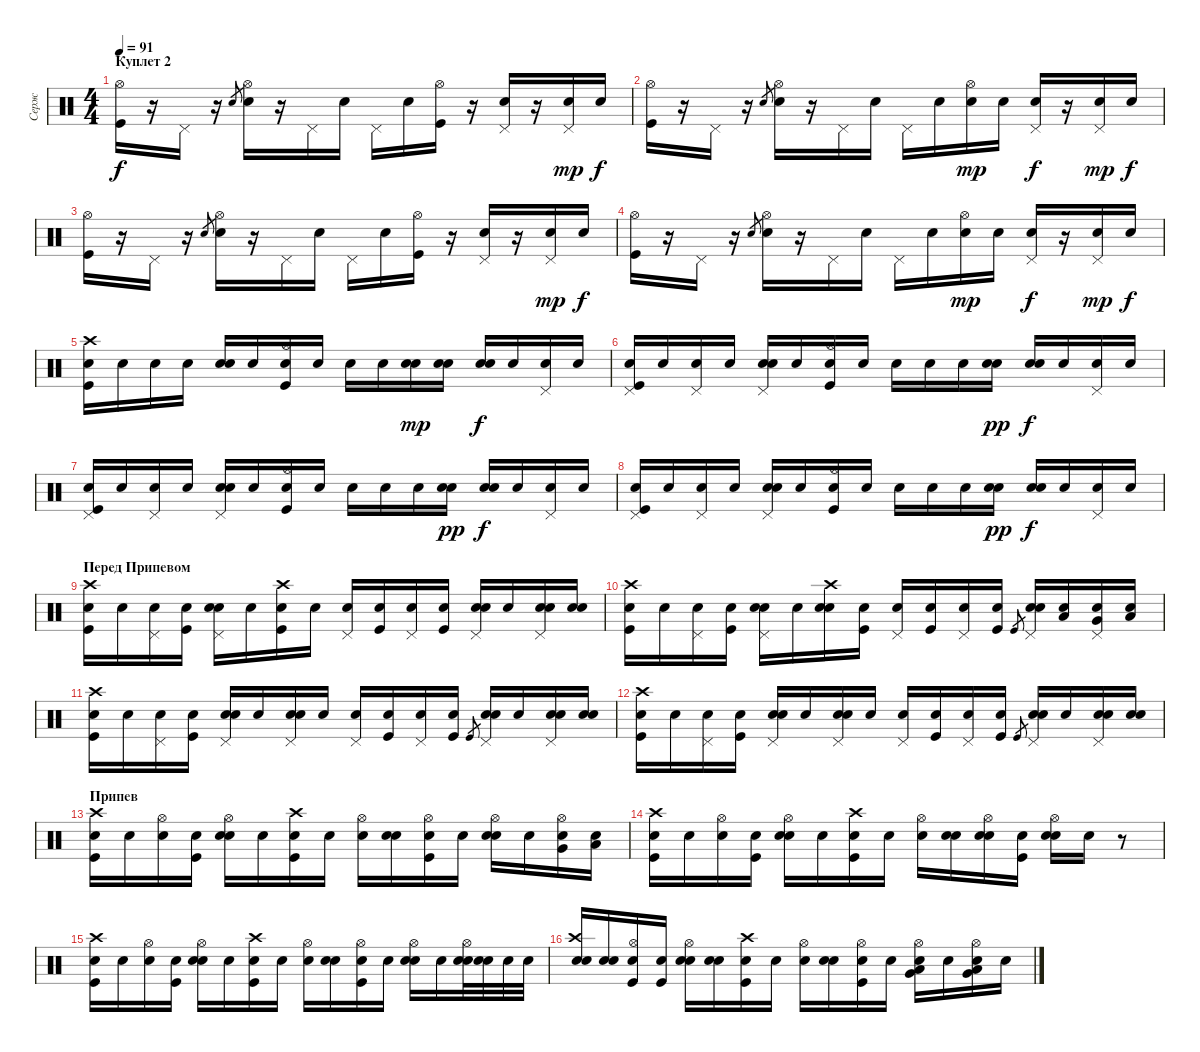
\track ("Серж" "Серж") {instrument percussion}
\staff {score}
\articulation defaults
\ts (4 4)
\section ("" "Куплет 2")
\tempo 91
\clef neutral
\ks c
("Kick (hit)" "Hi-Hat (open)").16{dy f} r.16 "Pedal Hi-Hat (hit)".16 r.16 "Snare (hit) 2".8{gr} ("Snare (hit) 2" "Hi-Hat (open)").16 r.16 "Pedal Hi-Hat (hit)".16 "Snare (hit) 2".16 "Pedal Hi-Hat (hit)".16 "Snare (hit) 2".16 ("Kick (hit)" "Hi-Hat (open)").16 r.16 ("Snare (hit) 2" "Pedal Hi-Hat (hit)").16 r.16 ("Snare (hit) 2" "Pedal Hi-Hat (hit)").16{dy mp} "Snare (hit) 2".16{dy f} |
("Kick (hit)" "Hi-Hat (open)").16 r.16 "Pedal Hi-Hat (hit)".16 r.16 "Snare (hit) 2".8{gr} ("Snare (hit) 2" "Hi-Hat (open)").16 r.16 "Pedal Hi-Hat (hit)".16 "Snare (hit) 2".16 "Pedal Hi-Hat (hit)".16 "Snare (hit) 2".16 ("Snare (hit) 2" "Hi-Hat (open)").16{dy mp} "Snare (hit) 2".16 ("Snare (hit) 2" "Pedal Hi-Hat (hit)").16{dy f} r.16 ("Snare (hit) 2" "Pedal Hi-Hat (hit)").16{dy mp} "Snare (hit) 2".16{dy f} |
("Kick (hit)" "Hi-Hat (open)").16 r.16 "Pedal Hi-Hat (hit)".16 r.16 "Snare (hit) 2".8{gr} ("Snare (hit) 2" "Hi-Hat (open)").16 r.16 "Pedal Hi-Hat (hit)".16 "Snare (hit) 2".16 "Pedal Hi-Hat (hit)".16 "Snare (hit) 2".16 ("Kick (hit)" "Hi-Hat (open)").16 r.16 ("Snare (hit) 2" "Pedal Hi-Hat (hit)").16 r.16 ("Snare (hit) 2" "Pedal Hi-Hat (hit)").16{dy mp} "Snare (hit) 2".16{dy f} |
("Kick (hit)" "Hi-Hat (open)").16 r.16 "Pedal Hi-Hat (hit)".16 r.16 "Snare (hit) 2".8{gr} ("Snare (hit) 2" "Hi-Hat (open)").16 r.16 "Pedal Hi-Hat (hit)".16 "Snare (hit) 2".16 "Pedal Hi-Hat (hit)".16 "Snare (hit) 2".16 ("Snare (hit) 2" "Hi-Hat (open)").16{dy mp} "Snare (hit) 2".16 ("Snare (hit) 2" "Pedal Hi-Hat (hit)").16{dy f} r.16 ("Snare (hit) 2" "Pedal Hi-Hat (hit)").16{dy mp} "Snare (hit) 2".16{dy f} |
("Kick (hit)" "Crash high (hit)" "Snare (hit)"{x}).16 "Snare (hit)"{x}.16 "Snare (hit)"{x}.16 "Snare (hit)"{x}.16 ("Snare (hit) 2" "Snare (hit)"{x}).16 "Snare (hit)"{x}.16 ("Kick (hit)" "Hi-Hat (open)" "Snare (hit)"{x}).16 "Snare (hit)"{x}.16 "Snare (hit)"{x}.16 "Snare (hit)"{x}.16 ("Snare (hit) 2" "Snare (hit)"{x}).16{dy mp} ("Snare (hit) 2" "Snare (hit)"{x}).16 ("Snare (hit) 2" "Snare (hit)"{x}).16{dy f} "Snare (hit)"{x}.16 ("Pedal Hi-Hat (hit)" "Snare (hit)"{x}).16 "Snare (hit)"{x}.16 |
("Kick (hit)" "Pedal Hi-Hat (hit)" "Snare (hit)"{x}).16 "Snare (hit)"{x}.16 ("Pedal Hi-Hat (hit)" "Snare (hit)"{x}).16 "Snare (hit)"{x}.16 ("Snare (hit) 2" "Pedal Hi-Hat (hit)" "Snare (hit)"{x}).16 "Snare (hit)"{x}.16 ("Kick (hit)" "Hi-Hat (open)" "Snare (hit)"{x}).16 "Snare (hit)"{x}.16 "Snare (hit)"{x}.16 "Snare (hit)"{x}.16 "Snare (hit)"{x}.16 ("Snare (hit) 2" "Snare (hit)"{x}).16{dy pp} ("Snare (hit) 2" "Snare (hit)"{x}).16{dy f} "Snare (hit)"{x}.16 ("Pedal Hi-Hat (hit)" "Snare (hit)"{x}).16 "Snare (hit)"{x}.16 |
("Kick (hit)" "Pedal Hi-Hat (hit)" "Snare (hit)"{x}).16 "Snare (hit)"{x}.16 ("Pedal Hi-Hat (hit)" "Snare (hit)"{x}).16 "Snare (hit)"{x}.16 ("Snare (hit) 2" "Pedal Hi-Hat (hit)" "Snare (hit)"{x}).16 "Snare (hit)"{x}.16 ("Kick (hit)" "Hi-Hat (open)" "Snare (hit)"{x}).16 "Snare (hit)"{x}.16 "Snare (hit)"{x}.16 "Snare (hit)"{x}.16 "Snare (hit)"{x}.16 ("Snare (hit) 2" "Snare (hit)"{x}).16{dy pp} ("Snare (hit) 2" "Snare (hit)"{x}).16{dy f} "Snare (hit)"{x}.16 ("Pedal Hi-Hat (hit)" "Snare (hit)"{x}).16 "Snare (hit)"{x}.16 |
("Kick (hit)" "Pedal Hi-Hat (hit)" "Snare (hit)"{x}).16 "Snare (hit)"{x}.16 ("Pedal Hi-Hat (hit)" "Snare (hit)"{x}).16 "Snare (hit)"{x}.16 ("Snare (hit) 2" "Pedal Hi-Hat (hit)" "Snare (hit)"{x}).16 "Snare (hit)"{x}.16 ("Kick (hit)" "Hi-Hat (open)" "Snare (hit)"{x}).16 "Snare (hit)"{x}.16 "Snare (hit)"{x}.16 "Snare (hit)"{x}.16 "Snare (hit)"{x}.16 ("Snare (hit) 2" "Snare (hit)"{x}).16{dy pp} ("Snare (hit) 2" "Snare (hit)"{x}).16{dy f} "Snare (hit)"{x}.16 ("Pedal Hi-Hat (hit)" "Snare (hit)"{x}).16 "Snare (hit)"{x}.16 |
\section ("" "Перед Припевом")
("Kick (hit)" "Crash high (hit)" "Snare (hit)"{x}).16 "Snare (hit)"{x}.16 ("Pedal Hi-Hat (hit)" "Snare (hit)"{x}).16 ("Kick (hit)" "Snare (hit)"{x}).16 ("Snare (hit) 2" "Pedal Hi-Hat (hit)" "Snare (hit)"{x}).16 "Snare (hit)"{x}.16 ("Kick (hit)" "Crash high (hit)" "Snare (hit)"{x}).16 "Snare (hit)"{x}.16 ("Pedal Hi-Hat (hit)" "Snare (hit)"{x}).16 ("Kick (hit)" "Snare (hit)"{x}).16 ("Pedal Hi-Hat (hit)" "Snare (hit)"{x}).16 ("Kick (hit)" "Snare (hit)"{x}).16 ("Snare (hit) 2" "Pedal Hi-Hat (hit)" "Snare (hit)"{x}).16 "Snare (hit)"{x}.16 ("Electric Snare (hit)" "Pedal Hi-Hat (hit)" "Snare (hit)"{x}).16 ("Electric Snare (hit)" "Snare (hit)"{x}).16 |
("Kick (hit)" "Crash high (hit)" "Snare (hit)"{x}).16 "Snare (hit)"{x}.16 ("Pedal Hi-Hat (hit)" "Snare (hit)"{x}).16 ("Kick (hit)" "Snare (hit)"{x}).16 ("Snare (hit) 2" "Pedal Hi-Hat (hit)" "Snare (hit)"{x}).16 "Snare (hit)"{x}.16 ("Snare (hit) 2" "Crash high (hit)" "Snare (hit)"{x}).16 ("Kick (hit)" "Snare (hit)"{x}).16 ("Pedal Hi-Hat (hit)" "Snare (hit)"{x}).16 ("Kick (hit)" "Snare (hit)"{x}).16 ("Pedal Hi-Hat (hit)" "Snare (hit)"{x}).16 ("Kick (hit)" "Snare (hit)"{x}).16 "Kick (hit)".8{gr} ("Snare (hit) 2" "Pedal Hi-Hat (hit)" "Snare (hit)"{x}).16 ("Low Tom (hit)" "Snare (hit)"{x}).16 ("Very Low Tom (hit)" "Pedal Hi-Hat (hit)" "Snare (hit)"{x}).16 ("Low Floor Tom (hit)" "Snare (hit)"{x}).16 |
("Kick (hit)" "Crash high (hit)" "Snare (hit)"{x}).16 "Snare (hit)"{x}.16 ("Pedal Hi-Hat (hit)" "Snare (hit)"{x}).16 ("Kick (hit)" "Snare (hit)"{x}).16 ("Snare (hit) 2" "Pedal Hi-Hat (hit)" "Snare (hit)"{x}).16 "Snare (hit)"{x}.16 ("Snare (hit) 2" "Pedal Hi-Hat (hit)" "Snare (hit)"{x}).16 "Snare (hit)"{x}.16 ("Pedal Hi-Hat (hit)" "Snare (hit)"{x}).16 ("Kick (hit)" "Snare (hit)"{x}).16 ("Pedal Hi-Hat (hit)" "Snare (hit)"{x}).16 ("Kick (hit)" "Snare (hit)"{x}).16 "Kick (hit)".8{gr} ("Snare (hit) 2" "Pedal Hi-Hat (hit)" "Snare (hit)"{x}).16 "Snare (hit)"{x}.16 ("Electric Snare (hit)" "Pedal Hi-Hat (hit)" "Snare (hit)"{x}).16 ("Electric Snare (hit)" "Snare (hit)"{x}).16 |
("Kick (hit)" "Crash high (hit)" "Snare (hit)"{x}).16 "Snare (hit)"{x}.16 ("Pedal Hi-Hat (hit)" "Snare (hit)"{x}).16 ("Kick (hit)" "Snare (hit)"{x}).16 ("Snare (hit) 2" "Pedal Hi-Hat (hit)" "Snare (hit)"{x}).16 "Snare (hit)"{x}.16 ("Snare (hit) 2" "Pedal Hi-Hat (hit)" "Snare (hit)"{x}).16 "Snare (hit)"{x}.16 ("Pedal Hi-Hat (hit)" "Snare (hit)"{x}).16 ("Kick (hit)" "Snare (hit)"{x}).16 ("Pedal Hi-Hat (hit)" "Snare (hit)"{x}).16 ("Kick (hit)" "Snare (hit)"{x}).16 "Kick (hit)".8{gr} ("Snare (hit) 2" "Pedal Hi-Hat (hit)" "Snare (hit)"{x}).16 "Snare (hit)"{x}.16 ("Electric Snare (hit)" "Pedal Hi-Hat (hit)" "Snare (hit)"{x}).16 ("Electric Snare (hit)" "Snare (hit)"{x}).16 |
\section ("" "Припев")
("Crash high (hit)" "Kick (hit)" "Snare (hit)"{x}).16 "Snare (hit)"{x}.16 ("Hi-Hat (open)" "Snare (hit)"{x}).16 ("Kick (hit)" "Snare (hit)"{x}).16 ("Snare (hit) 2" "Hi-Hat (open)" "Snare (hit)"{x}).16 "Snare (hit)"{x}.16 ("Crash high (hit)" "Kick (hit)" "Snare (hit)"{x}).16 "Snare (hit)"{x}.16 ("Hi-Hat (open)" "Snare (hit)"{x}).16 ("Snare (hit) 2" "Snare (hit)"{x}).16 ("Kick (hit)" "Hi-Hat (open)" "Snare (hit)"{x}).16 "Snare (hit)"{x}.16 ("Snare (hit) 2" "Hi-Hat (open)" "Snare (hit)"{x}).16 "Snare (hit)"{x}.16 ("Very Low Tom (hit)" "Hi-Hat (open)" "Snare (hit)"{x}).16 ("Low Floor Tom (hit)" "Snare (hit)"{x}).16 |
("Crash high (hit)" "Kick (hit)" "Snare (hit)"{x}).16 "Snare (hit)"{x}.16 ("Hi-Hat (open)" "Snare (hit)"{x}).16 ("Kick (hit)" "Snare (hit)"{x}).16 ("Snare (hit) 2" "Hi-Hat (open)" "Snare (hit)"{x}).16 "Snare (hit)"{x}.16 ("Crash high (hit)" "Kick (hit)" "Snare (hit)"{x}).16 "Snare (hit)"{x}.16 ("Hi-Hat (open)" "Snare (hit)"{x}).16 ("Snare (hit) 2" "Snare (hit)"{x}).16 ("Snare (hit) 2" "Hi-Hat (open)" "Snare (hit)"{x}).16 ("Kick (hit)" "Snare (hit)"{x}).16 ("Snare (hit) 2" "Hi-Hat (open)" "Snare (hit)"{x}).16 "Snare (hit)"{x}.16 r.8 |
("Crash high (hit)" "Kick (hit)" "Snare (hit)"{x}).16 "Snare (hit)"{x}.16 ("Hi-Hat (open)" "Snare (hit)"{x}).16 ("Kick (hit)" "Snare (hit)"{x}).16 ("Snare (hit) 2" "Hi-Hat (open)" "Snare (hit)"{x}).16 "Snare (hit)"{x}.16 ("Crash high (hit)" "Kick (hit)" "Snare (hit)"{x}).16 "Snare (hit)"{x}.16 ("Hi-Hat (open)" "Snare (hit)"{x}).16 ("Snare (hit) 2" "Snare (hit)"{x}).16 ("Kick (hit)" "Hi-Hat (open)" "Snare (hit)"{x}).16 "Snare (hit)"{x}.16 ("Snare (hit) 2" "Hi-Hat (open)" "Snare (hit)"{x}).16 "Snare (hit)"{x}.16 ("Electric Snare (hit)" "Hi-Hat (open)" "Snare (hit)"{x}).32 ("Electric Snare (hit)" "Snare (hit)"{x}).32 "Electric Snare (hit)".32 "Electric Snare (hit)".32 |
("Crash high (hit)" "Electric Snare (hit)" "Snare (hit)"{x}).16 ("Electric Snare (hit)" "Snare (hit)"{x}).16 ("Kick (hit)" "Hi-Hat (open)" "Snare (hit)"{x}).16 ("Kick (hit)" "Snare (hit)"{x}).16 ("Snare (hit) 2" "Hi-Hat (open)" "Snare (hit)"{x}).16 ("Electric Snare (hit)" "Snare (hit)"{x}).16 ("Crash high (hit)" "Kick (hit)" "Snare (hit)"{x}).16 "Snare (hit)"{x}.16 ("Hi-Hat (open)" "Snare (hit)"{x}).16 ("Snare (hit) 2" "Snare (hit)"{x}).16 ("Kick (hit)" "Hi-Hat (open)" "Snare (hit)"{x}).16 "Snare (hit)"{x}.16 ("Very Low Tom (hit)" "Low Tom (hit)" "Hi-Hat (open)" "Snare (hit)"{x}).16 "Snare (hit)"{x}.16 ("Low Floor Tom (hit)" "Very Low Tom (hit)" "Hi-Hat (open)" "Snare (hit)"{x}).16 "Snare (hit)"{x}.16
